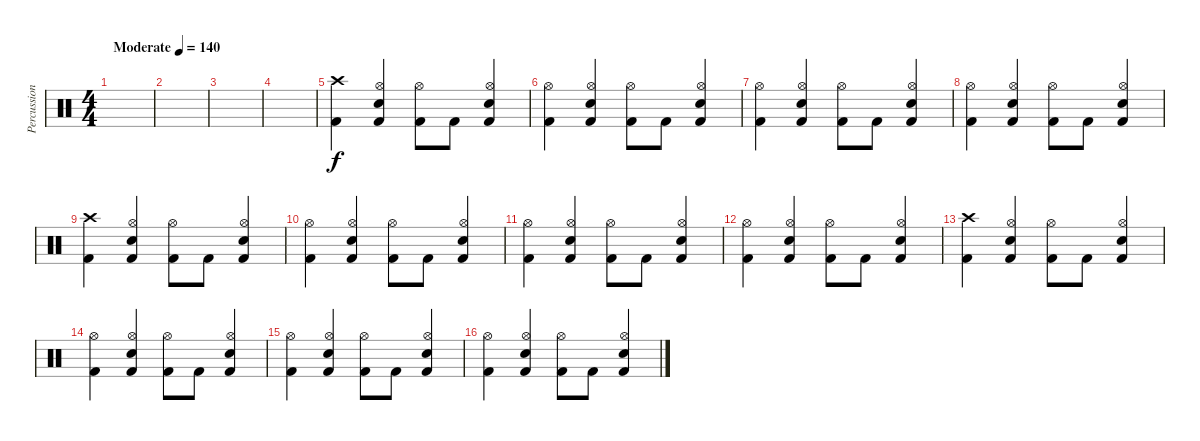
\track ("Percussions" "Percussion") {instrument percussion}
\staff {score}
\articulation defaults
\ts (4 4)
\tempo (140 "Moderate")
\clef neutral
\ks c
|
|
|
|
("Crash high (hit)" "Kick (hit) 2").4 ("Hi-Hat (open)" "Electric Snare (hit)" "Kick (hit) 2").4 ("Hi-Hat (open)" "Kick (hit) 2").8 "Kick (hit) 2".8 ("Hi-Hat (open)" "Electric Snare (hit)" "Kick (hit) 2").4 |
("Hi-Hat (open)" "Kick (hit) 2").4 ("Hi-Hat (open)" "Electric Snare (hit)" "Kick (hit) 2").4 ("Hi-Hat (open)" "Kick (hit) 2").8 "Kick (hit) 2".8 ("Hi-Hat (open)" "Electric Snare (hit)" "Kick (hit) 2").4 |
("Hi-Hat (open)" "Kick (hit) 2").4 ("Hi-Hat (open)" "Electric Snare (hit)" "Kick (hit) 2").4 ("Hi-Hat (open)" "Kick (hit) 2").8 "Kick (hit) 2".8 ("Hi-Hat (open)" "Electric Snare (hit)" "Kick (hit) 2").4 |
("Hi-Hat (open)" "Kick (hit) 2").4 ("Hi-Hat (open)" "Electric Snare (hit)" "Kick (hit) 2").4 ("Hi-Hat (open)" "Kick (hit) 2").8 "Kick (hit) 2".8 ("Hi-Hat (open)" "Electric Snare (hit)" "Kick (hit) 2").4 |
("Crash high (hit)" "Kick (hit) 2").4 ("Hi-Hat (open)" "Electric Snare (hit)" "Kick (hit) 2").4 ("Hi-Hat (open)" "Kick (hit) 2").8 "Kick (hit) 2".8 ("Hi-Hat (open)" "Electric Snare (hit)" "Kick (hit) 2").4 |
("Hi-Hat (open)" "Kick (hit) 2").4 ("Hi-Hat (open)" "Electric Snare (hit)" "Kick (hit) 2").4 ("Hi-Hat (open)" "Kick (hit) 2").8 "Kick (hit) 2".8 ("Hi-Hat (open)" "Electric Snare (hit)" "Kick (hit) 2").4 |
("Hi-Hat (open)" "Kick (hit) 2").4 ("Hi-Hat (open)" "Electric Snare (hit)" "Kick (hit) 2").4 ("Hi-Hat (open)" "Kick (hit) 2").8 "Kick (hit) 2".8 ("Hi-Hat (open)" "Electric Snare (hit)" "Kick (hit) 2").4 |
("Hi-Hat (open)" "Kick (hit) 2").4 ("Hi-Hat (open)" "Electric Snare (hit)" "Kick (hit) 2").4 ("Hi-Hat (open)" "Kick (hit) 2").8 "Kick (hit) 2".8 ("Hi-Hat (open)" "Electric Snare (hit)" "Kick (hit) 2").4 |
("Crash high (hit)" "Kick (hit) 2").4 ("Hi-Hat (open)" "Electric Snare (hit)" "Kick (hit) 2").4 ("Hi-Hat (open)" "Kick (hit) 2").8 "Kick (hit) 2".8 ("Hi-Hat (open)" "Electric Snare (hit)" "Kick (hit) 2").4 |
("Hi-Hat (open)" "Kick (hit) 2").4 ("Hi-Hat (open)" "Electric Snare (hit)" "Kick (hit) 2").4 ("Hi-Hat (open)" "Kick (hit) 2").8 "Kick (hit) 2".8 ("Hi-Hat (open)" "Electric Snare (hit)" "Kick (hit) 2").4 |
("Hi-Hat (open)" "Kick (hit) 2").4 ("Hi-Hat (open)" "Electric Snare (hit)" "Kick (hit) 2").4 ("Hi-Hat (open)" "Kick (hit) 2").8 "Kick (hit) 2".8 ("Hi-Hat (open)" "Electric Snare (hit)" "Kick (hit) 2").4 |
("Hi-Hat (open)" "Kick (hit) 2").4 ("Hi-Hat (open)" "Electric Snare (hit)" "Kick (hit) 2").4 ("Hi-Hat (open)" "Kick (hit) 2").8 "Kick (hit) 2".8 ("Hi-Hat (open)" "Electric Snare (hit)" "Kick (hit) 2").4
